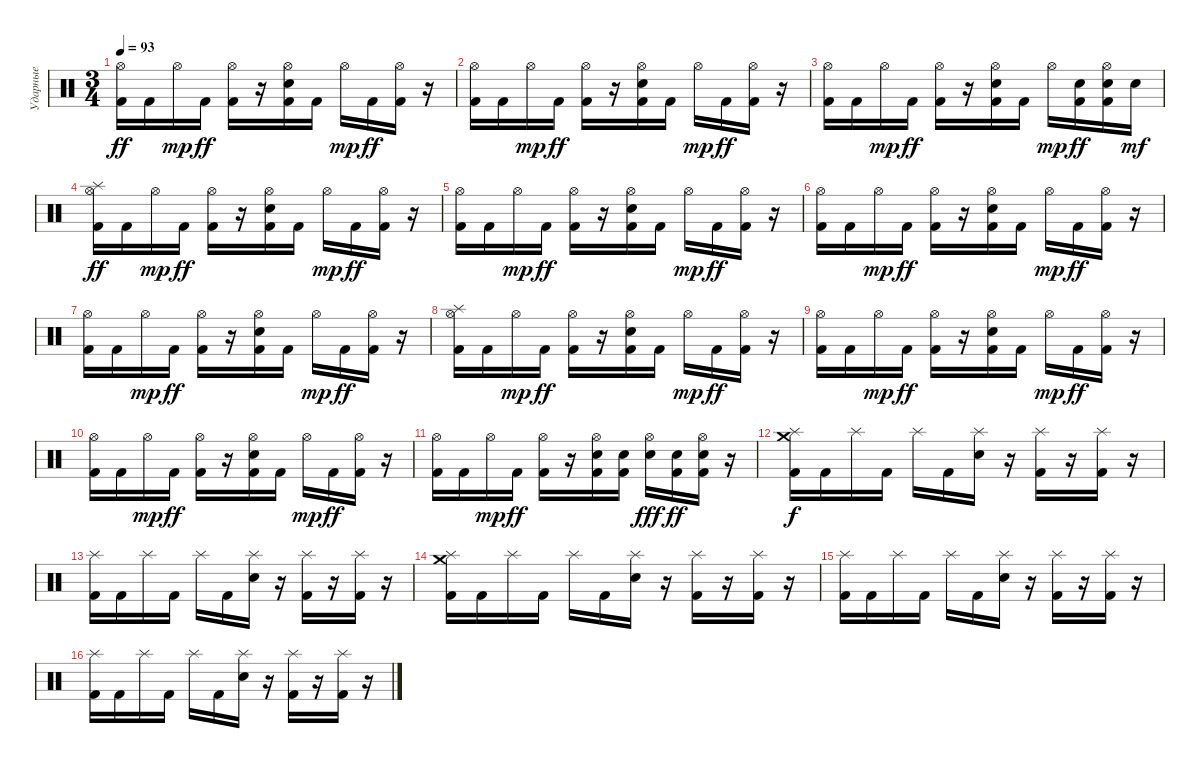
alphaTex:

\track ("Ударные" "Ударные") {instrument percussion}
\staff {score}
\articulation defaults
\ts (3 4)
\tempo 93
\clef neutral
\ks c
("Hi-Hat (open)" "Kick (hit) 2").16{dy ff} "Kick (hit) 2".16 "Hi-Hat (open)".16{dy mp} "Kick (hit) 2".16{dy ff} ("Hi-Hat (open)" "Kick (hit) 2").16 r.16 ("Hi-Hat (open)" "Electric Snare (hit)" "Kick (hit) 2").16 "Kick (hit) 2".16 "Hi-Hat (open)".16{dy mp} "Kick (hit) 2".16{dy ff} ("Hi-Hat (open)" "Kick (hit) 2").16 r.16 |
("Hi-Hat (open)" "Kick (hit) 2").16 "Kick (hit) 2".16 "Hi-Hat (open)".16{dy mp} "Kick (hit) 2".16{dy ff} ("Hi-Hat (open)" "Kick (hit) 2").16 r.16 ("Hi-Hat (open)" "Electric Snare (hit)" "Kick (hit) 2").16 "Kick (hit) 2".16 "Hi-Hat (open)".16{dy mp} "Kick (hit) 2".16{dy ff} ("Hi-Hat (open)" "Kick (hit) 2").16 r.16 |
("Hi-Hat (open)" "Kick (hit) 2").16 "Kick (hit) 2".16 "Hi-Hat (open)".16{dy mp} "Kick (hit) 2".16{dy ff} ("Hi-Hat (open)" "Kick (hit) 2").16 r.16 ("Hi-Hat (open)" "Electric Snare (hit)" "Kick (hit) 2").16 "Kick (hit) 2".16 "Hi-Hat (open)".16{dy mp} ("Electric Snare (hit)" "Kick (hit) 2").16{dy ff} ("Hi-Hat (open)" "Electric Snare (hit)" "Kick (hit) 2").16 "Electric Snare (hit)".16{dy mf} |
("Hi-Hat (open)" "Splash (hit)" "Kick (hit) 2").16{dy ff} "Kick (hit) 2".16 "Hi-Hat (open)".16{dy mp} "Kick (hit) 2".16{dy ff} ("Hi-Hat (open)" "Kick (hit) 2").16 r.16 ("Hi-Hat (open)" "Electric Snare (hit)" "Kick (hit) 2").16 "Kick (hit) 2".16 "Hi-Hat (open)".16{dy mp} "Kick (hit) 2".16{dy ff} ("Hi-Hat (open)" "Kick (hit) 2").16 r.16 |
("Hi-Hat (open)" "Kick (hit) 2").16 "Kick (hit) 2".16 "Hi-Hat (open)".16{dy mp} "Kick (hit) 2".16{dy ff} ("Hi-Hat (open)" "Kick (hit) 2").16 r.16 ("Hi-Hat (open)" "Electric Snare (hit)" "Kick (hit) 2").16 "Kick (hit) 2".16 "Hi-Hat (open)".16{dy mp} "Kick (hit) 2".16{dy ff} ("Hi-Hat (open)" "Kick (hit) 2").16 r.16 |
("Hi-Hat (open)" "Kick (hit) 2").16 "Kick (hit) 2".16 "Hi-Hat (open)".16{dy mp} "Kick (hit) 2".16{dy ff} ("Hi-Hat (open)" "Kick (hit) 2").16 r.16 ("Hi-Hat (open)" "Electric Snare (hit)" "Kick (hit) 2").16 "Kick (hit) 2".16 "Hi-Hat (open)".16{dy mp} "Kick (hit) 2".16{dy ff} ("Hi-Hat (open)" "Kick (hit) 2").16 r.16 |
("Hi-Hat (open)" "Kick (hit) 2").16 "Kick (hit) 2".16 "Hi-Hat (open)".16{dy mp} "Kick (hit) 2".16{dy ff} ("Hi-Hat (open)" "Kick (hit) 2").16 r.16 ("Hi-Hat (open)" "Electric Snare (hit)" "Kick (hit) 2").16 "Kick (hit) 2".16 "Hi-Hat (open)".16{dy mp} "Kick (hit) 2".16{dy ff} ("Hi-Hat (open)" "Kick (hit) 2").16 r.16 |
("Hi-Hat (open)" "Splash (hit)" "Kick (hit) 2").16 "Kick (hit) 2".16 "Hi-Hat (open)".16{dy mp} "Kick (hit) 2".16{dy ff} ("Hi-Hat (open)" "Kick (hit) 2").16 r.16 ("Hi-Hat (open)" "Electric Snare (hit)" "Kick (hit) 2").16 "Kick (hit) 2".16 "Hi-Hat (open)".16{dy mp} "Kick (hit) 2".16{dy ff} ("Hi-Hat (open)" "Kick (hit) 2").16 r.16 |
("Hi-Hat (open)" "Kick (hit) 2").16 "Kick (hit) 2".16 "Hi-Hat (open)".16{dy mp} "Kick (hit) 2".16{dy ff} ("Hi-Hat (open)" "Kick (hit) 2").16 r.16 ("Hi-Hat (open)" "Electric Snare (hit)" "Kick (hit) 2").16 "Kick (hit) 2".16 "Hi-Hat (open)".16{dy mp} "Kick (hit) 2".16{dy ff} ("Hi-Hat (open)" "Kick (hit) 2").16 r.16 |
("Hi-Hat (open)" "Kick (hit) 2").16 "Kick (hit) 2".16 "Hi-Hat (open)".16{dy mp} "Kick (hit) 2".16{dy ff} ("Hi-Hat (open)" "Kick (hit) 2").16 r.16 ("Hi-Hat (open)" "Electric Snare (hit)" "Kick (hit) 2").16 "Kick (hit) 2".16 "Hi-Hat (open)".16{dy mp} "Kick (hit) 2".16{dy ff} ("Hi-Hat (open)" "Kick (hit) 2").16 r.16 |
("Hi-Hat (open)" "Kick (hit) 2").16 "Kick (hit) 2".16 "Hi-Hat (open)".16{dy mp} "Kick (hit) 2".16{dy ff} ("Hi-Hat (open)" "Kick (hit) 2").16 r.16 ("Hi-Hat (open)" "Electric Snare (hit)" "Kick (hit) 2").16 ("Electric Snare (hit)" "Kick (hit) 2").16 ("Hi-Hat (open)" "Electric Snare (hit)").16{dy fff} ("Electric Snare (hit)" "Kick (hit) 2").16{dy ff} ("Hi-Hat (open)" "Electric Snare (hit)" "Kick (hit) 2").16 r.16 |
("Splash (hit)" "Crash medium (hit)" "Kick (hit) 2").16{dy f} "Kick (hit) 2".16 "Splash (hit)".16 "Kick (hit) 2".16 "Splash (hit)".16 "Kick (hit) 2".16 ("Splash (hit)" "Electric Snare (hit)").16 r.16 ("Splash (hit)" "Kick (hit) 2").16 r.16 ("Splash (hit)" "Kick (hit) 2").16 r.16 |
("Splash (hit)" "Kick (hit) 2").16 "Kick (hit) 2".16 "Splash (hit)".16 "Kick (hit) 2".16 "Splash (hit)".16 "Kick (hit) 2".16 ("Splash (hit)" "Electric Snare (hit)").16 r.16 ("Splash (hit)" "Kick (hit) 2").16 r.16 ("Splash (hit)" "Kick (hit) 2").16 r.16 |
("Splash (hit)" "Crash medium (hit)" "Kick (hit) 2").16 "Kick (hit) 2".16 "Splash (hit)".16 "Kick (hit) 2".16 "Splash (hit)".16 "Kick (hit) 2".16 ("Splash (hit)" "Electric Snare (hit)").16 r.16 ("Splash (hit)" "Kick (hit) 2").16 r.16 ("Splash (hit)" "Kick (hit) 2").16 r.16 |
("Splash (hit)" "Kick (hit) 2").16 "Kick (hit) 2".16 "Splash (hit)".16 "Kick (hit) 2".16 "Splash (hit)".16 "Kick (hit) 2".16 ("Splash (hit)" "Electric Snare (hit)").16 r.16 ("Splash (hit)" "Kick (hit) 2").16 r.16 ("Splash (hit)" "Kick (hit) 2").16 r.16 |
("Splash (hit)" "Kick (hit) 2").16 "Kick (hit) 2".16 "Splash (hit)".16 "Kick (hit) 2".16 "Splash (hit)".16 "Kick (hit) 2".16 ("Splash (hit)" "Electric Snare (hit)").16 r.16 ("Splash (hit)" "Kick (hit) 2").16 r.16 ("Splash (hit)" "Kick (hit) 2").16 r.16
